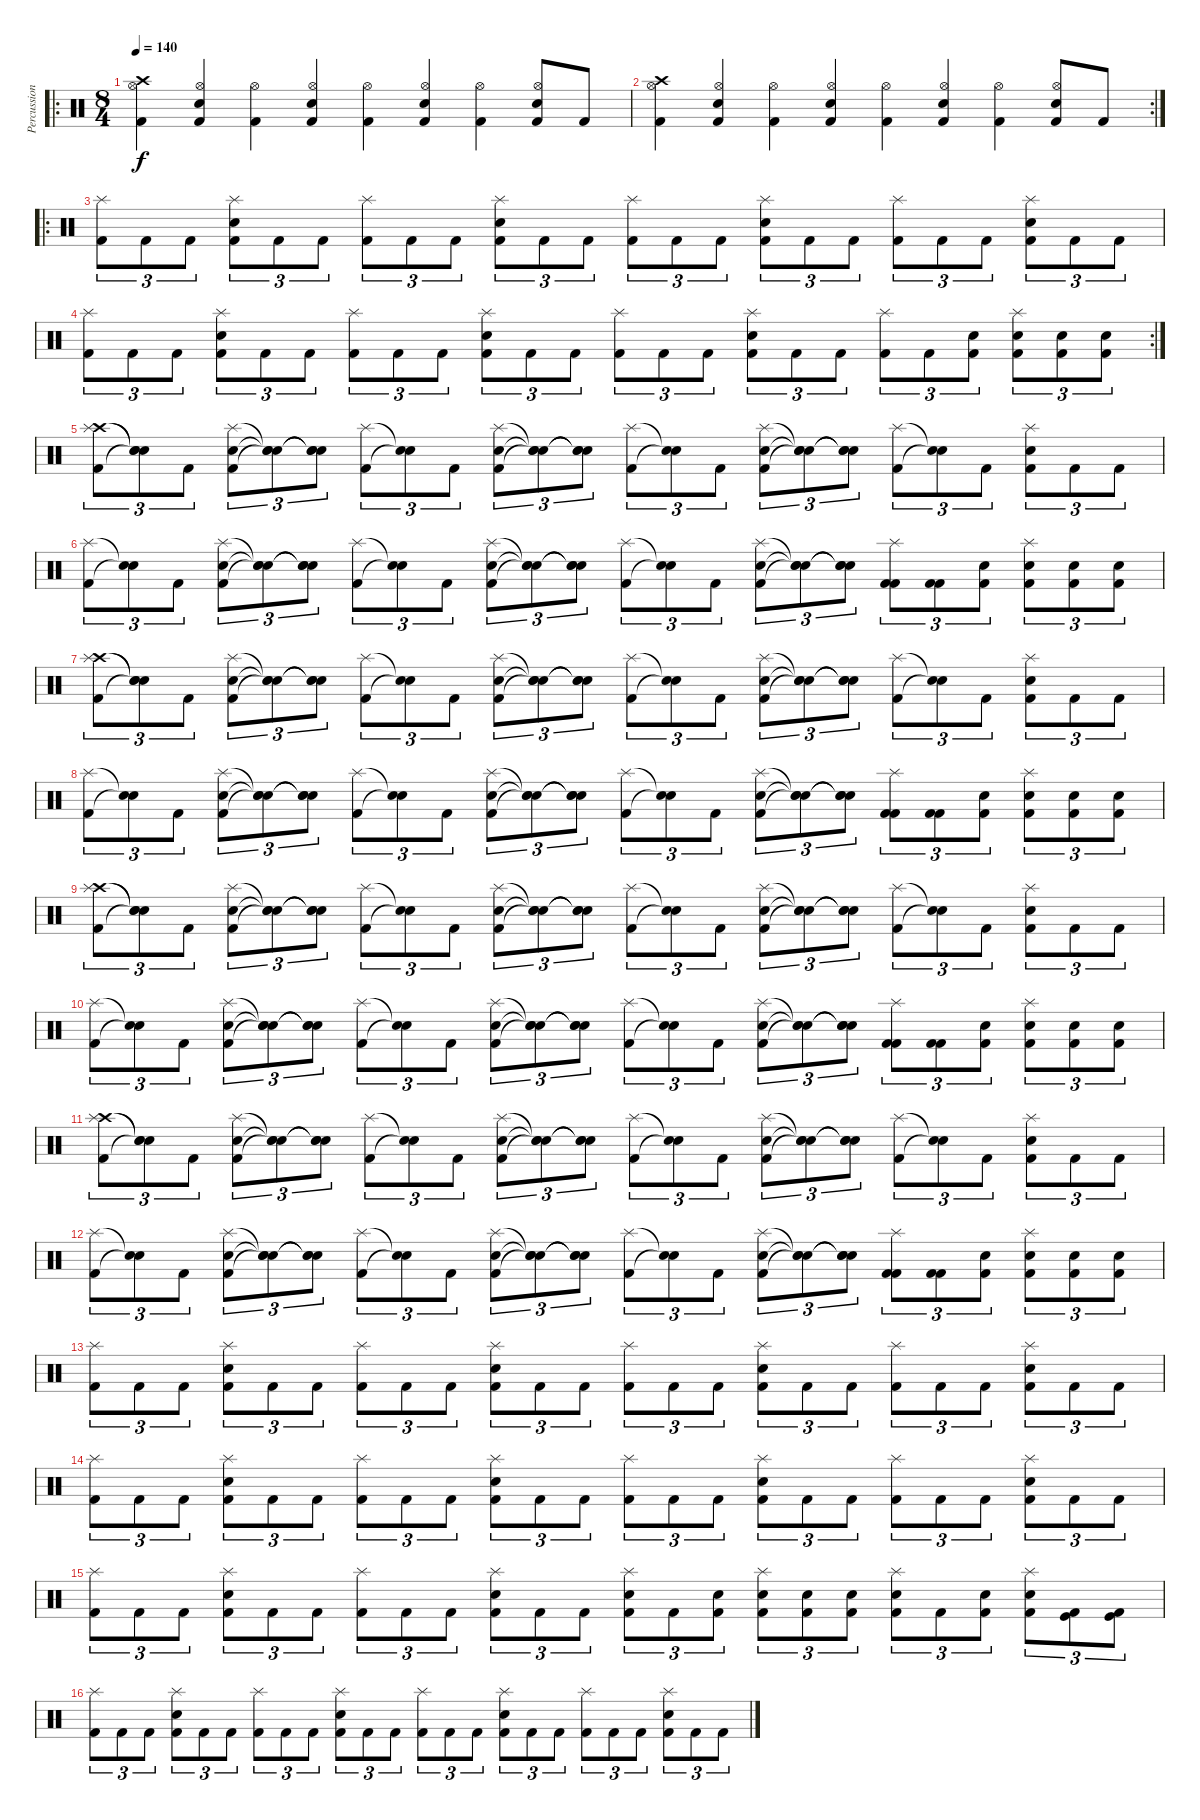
\track ("Percussion" "Percussion") {instrument percussion}
\staff {score}
\articulation defaults
\ro
\ts (8 4)
\tempo 140
\clef neutral
\ks c
("Crash high (hit)" "Kick (hit) 2" "Hi-Hat (open)").4{dy f} ("Snare (hit) 2" "Kick (hit) 2" "Hi-Hat (open)").4 ("Kick (hit) 2" "Hi-Hat (open)").4 ("Snare (hit) 2" "Kick (hit) 2" "Hi-Hat (open)").4 ("Kick (hit) 2" "Hi-Hat (open)").4 ("Snare (hit) 2" "Kick (hit) 2" "Hi-Hat (open)").4 ("Kick (hit) 2" "Hi-Hat (open)").4 ("Snare (hit) 2" "Kick (hit) 2" "Hi-Hat (open)").8 "Kick (hit) 2".8 |
\rc 2
("Crash high (hit)" "Kick (hit) 2" "Hi-Hat (open)").4 ("Snare (hit) 2" "Kick (hit) 2" "Hi-Hat (open)").4 ("Kick (hit) 2" "Hi-Hat (open)").4 ("Snare (hit) 2" "Kick (hit) 2" "Hi-Hat (open)").4 ("Kick (hit) 2" "Hi-Hat (open)").4 ("Snare (hit) 2" "Kick (hit) 2" "Hi-Hat (open)").4 ("Kick (hit) 2" "Hi-Hat (open)").4 ("Snare (hit) 2" "Kick (hit) 2" "Hi-Hat (open)").8 "Kick (hit) 2".8 |
\ro
("Splash (hit)" "Kick (hit) 2").8{tu (3 2)} "Kick (hit) 2".8{tu (3 2)} "Kick (hit) 2".8{tu (3 2)} ("Splash (hit)" "Snare (hit) 2" "Kick (hit) 2").8{tu (3 2)} "Kick (hit) 2".8{tu (3 2)} "Kick (hit) 2".8{tu (3 2)} ("Splash (hit)" "Kick (hit) 2").8{tu (3 2)} "Kick (hit) 2".8{tu (3 2)} "Kick (hit) 2".8{tu (3 2)} ("Splash (hit)" "Snare (hit) 2" "Kick (hit) 2").8{tu (3 2)} "Kick (hit) 2".8{tu (3 2)} "Kick (hit) 2".8{tu (3 2)} ("Splash (hit)" "Kick (hit) 2").8{tu (3 2)} "Kick (hit) 2".8{tu (3 2)} "Kick (hit) 2".8{tu (3 2)} ("Splash (hit)" "Snare (hit) 2" "Kick (hit) 2").8{tu (3 2)} "Kick (hit) 2".8{tu (3 2)} "Kick (hit) 2".8{tu (3 2)} ("Splash (hit)" "Kick (hit) 2").8{tu (3 2)} "Kick (hit) 2".8{tu (3 2)} "Kick (hit) 2".8{tu (3 2)} ("Splash (hit)" "Snare (hit) 2" "Kick (hit) 2").8{tu (3 2)} "Kick (hit) 2".8{tu (3 2)} "Kick (hit) 2".8{tu (3 2)} |
\rc 2
("Splash (hit)" "Kick (hit) 2").8{tu (3 2)} "Kick (hit) 2".8{tu (3 2)} "Kick (hit) 2".8{tu (3 2)} ("Splash (hit)" "Snare (hit) 2" "Kick (hit) 2").8{tu (3 2)} "Kick (hit) 2".8{tu (3 2)} "Kick (hit) 2".8{tu (3 2)} ("Splash (hit)" "Kick (hit) 2").8{tu (3 2)} "Kick (hit) 2".8{tu (3 2)} "Kick (hit) 2".8{tu (3 2)} ("Splash (hit)" "Snare (hit) 2" "Kick (hit) 2").8{tu (3 2)} "Kick (hit) 2".8{tu (3 2)} "Kick (hit) 2".8{tu (3 2)} ("Splash (hit)" "Kick (hit) 2").8{tu (3 2)} "Kick (hit) 2".8{tu (3 2)} "Kick (hit) 2".8{tu (3 2)} ("Splash (hit)" "Snare (hit) 2" "Kick (hit) 2").8{tu (3 2)} "Kick (hit) 2".8{tu (3 2)} "Kick (hit) 2".8{tu (3 2)} ("Splash (hit)" "Kick (hit) 2").8{tu (3 2)} "Kick (hit) 2".8{tu (3 2)} ("Snare (hit) 2" "Kick (hit) 2").8{tu (3 2)} ("Splash (hit)" "Snare (hit) 2" "Kick (hit) 2").8{tu (3 2)} ("Snare (hit) 2" "Kick (hit) 2").8{tu (3 2)} ("Snare (hit) 2" "Kick (hit) 2").8{tu (3 2)} |
("Crash high (hit)" "Splash (hit)" "Kick (hit) 2").8{tu (3 2)} ("Snare (hit)"{t} "Snare (hit)"{t} "Snare (hit)"{t}).8{tu (3 2)} "Kick (hit) 2".8{tu (3 2)} ("Splash (hit)" "Snare (hit) 2" "Kick (hit) 2").8{tu (3 2)} ("Snare (hit)"{t} "Snare (hit)"{t} "Snare (hit)"{t}).8{tu (3 2)} ("Snare (hit)"{t} "Snare (hit)"{t} "Snare (hit)"{t}).8{tu (3 2)} ("Splash (hit)" "Kick (hit) 2").8{tu (3 2)} ("Snare (hit)"{t} "Snare (hit)"{t}).8{tu (3 2)} "Kick (hit) 2".8{tu (3 2)} ("Splash (hit)" "Snare (hit) 2" "Kick (hit) 2").8{tu (3 2)} ("Snare (hit)"{t} "Snare (hit)"{t} "Snare (hit)"{t}).8{tu (3 2)} ("Snare (hit)"{t} "Snare (hit)"{t} "Snare (hit)"{t}).8{tu (3 2)} ("Splash (hit)" "Kick (hit) 2").8{tu (3 2)} ("Snare (hit)"{t} "Snare (hit)"{t}).8{tu (3 2)} "Kick (hit) 2".8{tu (3 2)} ("Splash (hit)" "Snare (hit) 2" "Kick (hit) 2").8{tu (3 2)} ("Snare (hit)"{t} "Snare (hit)"{t} "Snare (hit)"{t}).8{tu (3 2)} ("Snare (hit)"{t} "Snare (hit)"{t} "Snare (hit)"{t}).8{tu (3 2)} ("Splash (hit)" "Kick (hit) 2").8{tu (3 2)} ("Snare (hit)"{t} "Snare (hit)"{t}).8{tu (3 2)} "Kick (hit) 2".8{tu (3 2)} ("Splash (hit)" "Snare (hit) 2" "Kick (hit) 2").8{tu (3 2)} "Kick (hit) 2".8{tu (3 2)} "Kick (hit) 2".8{tu (3 2)} |
("Splash (hit)" "Kick (hit) 2").8{tu (3 2)} ("Snare (hit)"{t} "Snare (hit)"{t}).8{tu (3 2)} "Kick (hit) 2".8{tu (3 2)} ("Splash (hit)" "Snare (hit) 2" "Kick (hit) 2").8{tu (3 2)} ("Snare (hit)"{t} "Snare (hit)"{t} "Snare (hit)"{t}).8{tu (3 2)} ("Snare (hit)"{t} "Snare (hit)"{t} "Snare (hit)"{t}).8{tu (3 2)} ("Splash (hit)" "Kick (hit) 2").8{tu (3 2)} ("Snare (hit)"{t} "Snare (hit)"{t}).8{tu (3 2)} "Kick (hit) 2".8{tu (3 2)} ("Splash (hit)" "Snare (hit) 2" "Kick (hit) 2").8{tu (3 2)} ("Snare (hit)"{t} "Snare (hit)"{t} "Snare (hit)"{t}).8{tu (3 2)} ("Snare (hit)"{t} "Snare (hit)"{t} "Snare (hit)"{t}).8{tu (3 2)} ("Splash (hit)" "Kick (hit) 2").8{tu (3 2)} ("Snare (hit)"{t} "Snare (hit)"{t}).8{tu (3 2)} "Kick (hit) 2".8{tu (3 2)} ("Splash (hit)" "Snare (hit) 2" "Kick (hit) 2").8{tu (3 2)} ("Snare (hit)"{t} "Snare (hit)"{t} "Snare (hit)"{t}).8{tu (3 2)} ("Snare (hit)"{t} "Snare (hit)"{t} "Snare (hit)"{t}).8{tu (3 2)} ("Splash (hit)" "Kick (hit) 2" "Kick (hit) 2").8{tu (3 2)} ("Kick (hit) 2" "Kick (hit) 2").8{tu (3 2)} ("Snare (hit) 2" "Kick (hit) 2").8{tu (3 2)} ("Splash (hit)" "Snare (hit) 2" "Kick (hit) 2").8{tu (3 2)} ("Snare (hit) 2" "Kick (hit) 2").8{tu (3 2)} ("Snare (hit) 2" "Kick (hit) 2").8{tu (3 2)} |
("Crash high (hit)" "Splash (hit)" "Kick (hit) 2").8{tu (3 2)} ("Snare (hit)"{t} "Snare (hit)"{t} "Snare (hit)"{t}).8{tu (3 2)} "Kick (hit) 2".8{tu (3 2)} ("Splash (hit)" "Snare (hit) 2" "Kick (hit) 2").8{tu (3 2)} ("Snare (hit)"{t} "Snare (hit)"{t} "Snare (hit)"{t}).8{tu (3 2)} ("Snare (hit)"{t} "Snare (hit)"{t} "Snare (hit)"{t}).8{tu (3 2)} ("Splash (hit)" "Kick (hit) 2").8{tu (3 2)} ("Snare (hit)"{t} "Snare (hit)"{t}).8{tu (3 2)} "Kick (hit) 2".8{tu (3 2)} ("Splash (hit)" "Snare (hit) 2" "Kick (hit) 2").8{tu (3 2)} ("Snare (hit)"{t} "Snare (hit)"{t} "Snare (hit)"{t}).8{tu (3 2)} ("Snare (hit)"{t} "Snare (hit)"{t} "Snare (hit)"{t}).8{tu (3 2)} ("Splash (hit)" "Kick (hit) 2").8{tu (3 2)} ("Snare (hit)"{t} "Snare (hit)"{t}).8{tu (3 2)} "Kick (hit) 2".8{tu (3 2)} ("Splash (hit)" "Snare (hit) 2" "Kick (hit) 2").8{tu (3 2)} ("Snare (hit)"{t} "Snare (hit)"{t} "Snare (hit)"{t}).8{tu (3 2)} ("Snare (hit)"{t} "Snare (hit)"{t} "Snare (hit)"{t}).8{tu (3 2)} ("Splash (hit)" "Kick (hit) 2").8{tu (3 2)} ("Snare (hit)"{t} "Snare (hit)"{t}).8{tu (3 2)} "Kick (hit) 2".8{tu (3 2)} ("Splash (hit)" "Snare (hit) 2" "Kick (hit) 2").8{tu (3 2)} "Kick (hit) 2".8{tu (3 2)} "Kick (hit) 2".8{tu (3 2)} |
("Splash (hit)" "Kick (hit) 2").8{tu (3 2)} ("Snare (hit)"{t} "Snare (hit)"{t}).8{tu (3 2)} "Kick (hit) 2".8{tu (3 2)} ("Splash (hit)" "Snare (hit) 2" "Kick (hit) 2").8{tu (3 2)} ("Snare (hit)"{t} "Snare (hit)"{t} "Snare (hit)"{t}).8{tu (3 2)} ("Snare (hit)"{t} "Snare (hit)"{t} "Snare (hit)"{t}).8{tu (3 2)} ("Splash (hit)" "Kick (hit) 2").8{tu (3 2)} ("Snare (hit)"{t} "Snare (hit)"{t}).8{tu (3 2)} "Kick (hit) 2".8{tu (3 2)} ("Splash (hit)" "Snare (hit) 2" "Kick (hit) 2").8{tu (3 2)} ("Snare (hit)"{t} "Snare (hit)"{t} "Snare (hit)"{t}).8{tu (3 2)} ("Snare (hit)"{t} "Snare (hit)"{t} "Snare (hit)"{t}).8{tu (3 2)} ("Splash (hit)" "Kick (hit) 2").8{tu (3 2)} ("Snare (hit)"{t} "Snare (hit)"{t}).8{tu (3 2)} "Kick (hit) 2".8{tu (3 2)} ("Splash (hit)" "Snare (hit) 2" "Kick (hit) 2").8{tu (3 2)} ("Snare (hit)"{t} "Snare (hit)"{t} "Snare (hit)"{t}).8{tu (3 2)} ("Snare (hit)"{t} "Snare (hit)"{t} "Snare (hit)"{t}).8{tu (3 2)} ("Splash (hit)" "Kick (hit) 2" "Kick (hit) 2").8{tu (3 2)} ("Kick (hit) 2" "Kick (hit) 2").8{tu (3 2)} ("Snare (hit) 2" "Kick (hit) 2").8{tu (3 2)} ("Splash (hit)" "Snare (hit) 2" "Kick (hit) 2").8{tu (3 2)} ("Snare (hit) 2" "Kick (hit) 2").8{tu (3 2)} ("Snare (hit) 2" "Kick (hit) 2").8{tu (3 2)} |
("Crash high (hit)" "Splash (hit)" "Kick (hit) 2").8{tu (3 2)} ("Snare (hit)"{t} "Snare (hit)"{t} "Snare (hit)"{t}).8{tu (3 2)} "Kick (hit) 2".8{tu (3 2)} ("Splash (hit)" "Snare (hit) 2" "Kick (hit) 2").8{tu (3 2)} ("Snare (hit)"{t} "Snare (hit)"{t} "Snare (hit)"{t}).8{tu (3 2)} ("Snare (hit)"{t} "Snare (hit)"{t} "Snare (hit)"{t}).8{tu (3 2)} ("Splash (hit)" "Kick (hit) 2").8{tu (3 2)} ("Snare (hit)"{t} "Snare (hit)"{t}).8{tu (3 2)} "Kick (hit) 2".8{tu (3 2)} ("Splash (hit)" "Snare (hit) 2" "Kick (hit) 2").8{tu (3 2)} ("Snare (hit)"{t} "Snare (hit)"{t} "Snare (hit)"{t}).8{tu (3 2)} ("Snare (hit)"{t} "Snare (hit)"{t} "Snare (hit)"{t}).8{tu (3 2)} ("Splash (hit)" "Kick (hit) 2").8{tu (3 2)} ("Snare (hit)"{t} "Snare (hit)"{t}).8{tu (3 2)} "Kick (hit) 2".8{tu (3 2)} ("Splash (hit)" "Snare (hit) 2" "Kick (hit) 2").8{tu (3 2)} ("Snare (hit)"{t} "Snare (hit)"{t} "Snare (hit)"{t}).8{tu (3 2)} ("Snare (hit)"{t} "Snare (hit)"{t} "Snare (hit)"{t}).8{tu (3 2)} ("Splash (hit)" "Kick (hit) 2").8{tu (3 2)} ("Snare (hit)"{t} "Snare (hit)"{t}).8{tu (3 2)} "Kick (hit) 2".8{tu (3 2)} ("Splash (hit)" "Snare (hit) 2" "Kick (hit) 2").8{tu (3 2)} "Kick (hit) 2".8{tu (3 2)} "Kick (hit) 2".8{tu (3 2)} |
("Splash (hit)" "Kick (hit) 2").8{tu (3 2)} ("Snare (hit)"{t} "Snare (hit)"{t}).8{tu (3 2)} "Kick (hit) 2".8{tu (3 2)} ("Splash (hit)" "Snare (hit) 2" "Kick (hit) 2").8{tu (3 2)} ("Snare (hit)"{t} "Snare (hit)"{t} "Snare (hit)"{t}).8{tu (3 2)} ("Snare (hit)"{t} "Snare (hit)"{t} "Snare (hit)"{t}).8{tu (3 2)} ("Splash (hit)" "Kick (hit) 2").8{tu (3 2)} ("Snare (hit)"{t} "Snare (hit)"{t}).8{tu (3 2)} "Kick (hit) 2".8{tu (3 2)} ("Splash (hit)" "Snare (hit) 2" "Kick (hit) 2").8{tu (3 2)} ("Snare (hit)"{t} "Snare (hit)"{t} "Snare (hit)"{t}).8{tu (3 2)} ("Snare (hit)"{t} "Snare (hit)"{t} "Snare (hit)"{t}).8{tu (3 2)} ("Splash (hit)" "Kick (hit) 2").8{tu (3 2)} ("Snare (hit)"{t} "Snare (hit)"{t}).8{tu (3 2)} "Kick (hit) 2".8{tu (3 2)} ("Splash (hit)" "Snare (hit) 2" "Kick (hit) 2").8{tu (3 2)} ("Snare (hit)"{t} "Snare (hit)"{t} "Snare (hit)"{t}).8{tu (3 2)} ("Snare (hit)"{t} "Snare (hit)"{t} "Snare (hit)"{t}).8{tu (3 2)} ("Splash (hit)" "Kick (hit) 2" "Kick (hit) 2").8{tu (3 2)} ("Kick (hit) 2" "Kick (hit) 2").8{tu (3 2)} ("Snare (hit) 2" "Kick (hit) 2").8{tu (3 2)} ("Splash (hit)" "Snare (hit) 2" "Kick (hit) 2").8{tu (3 2)} ("Snare (hit) 2" "Kick (hit) 2").8{tu (3 2)} ("Snare (hit) 2" "Kick (hit) 2").8{tu (3 2)} |
("Crash high (hit)" "Splash (hit)" "Kick (hit) 2").8{tu (3 2)} ("Snare (hit)"{t} "Snare (hit)"{t} "Snare (hit)"{t}).8{tu (3 2)} "Kick (hit) 2".8{tu (3 2)} ("Splash (hit)" "Snare (hit) 2" "Kick (hit) 2").8{tu (3 2)} ("Snare (hit)"{t} "Snare (hit)"{t} "Snare (hit)"{t}).8{tu (3 2)} ("Snare (hit)"{t} "Snare (hit)"{t} "Snare (hit)"{t}).8{tu (3 2)} ("Splash (hit)" "Kick (hit) 2").8{tu (3 2)} ("Snare (hit)"{t} "Snare (hit)"{t}).8{tu (3 2)} "Kick (hit) 2".8{tu (3 2)} ("Splash (hit)" "Snare (hit) 2" "Kick (hit) 2").8{tu (3 2)} ("Snare (hit)"{t} "Snare (hit)"{t} "Snare (hit)"{t}).8{tu (3 2)} ("Snare (hit)"{t} "Snare (hit)"{t} "Snare (hit)"{t}).8{tu (3 2)} ("Splash (hit)" "Kick (hit) 2").8{tu (3 2)} ("Snare (hit)"{t} "Snare (hit)"{t}).8{tu (3 2)} "Kick (hit) 2".8{tu (3 2)} ("Splash (hit)" "Snare (hit) 2" "Kick (hit) 2").8{tu (3 2)} ("Snare (hit)"{t} "Snare (hit)"{t} "Snare (hit)"{t}).8{tu (3 2)} ("Snare (hit)"{t} "Snare (hit)"{t} "Snare (hit)"{t}).8{tu (3 2)} ("Splash (hit)" "Kick (hit) 2").8{tu (3 2)} ("Snare (hit)"{t} "Snare (hit)"{t}).8{tu (3 2)} "Kick (hit) 2".8{tu (3 2)} ("Splash (hit)" "Snare (hit) 2" "Kick (hit) 2").8{tu (3 2)} "Kick (hit) 2".8{tu (3 2)} "Kick (hit) 2".8{tu (3 2)} |
("Splash (hit)" "Kick (hit) 2").8{tu (3 2)} ("Snare (hit)"{t} "Snare (hit)"{t}).8{tu (3 2)} "Kick (hit) 2".8{tu (3 2)} ("Splash (hit)" "Snare (hit) 2" "Kick (hit) 2").8{tu (3 2)} ("Snare (hit)"{t} "Snare (hit)"{t} "Snare (hit)"{t}).8{tu (3 2)} ("Snare (hit)"{t} "Snare (hit)"{t} "Snare (hit)"{t}).8{tu (3 2)} ("Splash (hit)" "Kick (hit) 2").8{tu (3 2)} ("Snare (hit)"{t} "Snare (hit)"{t}).8{tu (3 2)} "Kick (hit) 2".8{tu (3 2)} ("Splash (hit)" "Snare (hit) 2" "Kick (hit) 2").8{tu (3 2)} ("Snare (hit)"{t} "Snare (hit)"{t} "Snare (hit)"{t}).8{tu (3 2)} ("Snare (hit)"{t} "Snare (hit)"{t} "Snare (hit)"{t}).8{tu (3 2)} ("Splash (hit)" "Kick (hit) 2").8{tu (3 2)} ("Snare (hit)"{t} "Snare (hit)"{t}).8{tu (3 2)} "Kick (hit) 2".8{tu (3 2)} ("Splash (hit)" "Snare (hit) 2" "Kick (hit) 2").8{tu (3 2)} ("Snare (hit)"{t} "Snare (hit)"{t} "Snare (hit)"{t}).8{tu (3 2)} ("Snare (hit)"{t} "Snare (hit)"{t} "Snare (hit)"{t}).8{tu (3 2)} ("Splash (hit)" "Kick (hit) 2" "Kick (hit) 2").8{tu (3 2)} ("Kick (hit) 2" "Kick (hit) 2").8{tu (3 2)} ("Snare (hit) 2" "Kick (hit) 2").8{tu (3 2)} ("Splash (hit)" "Snare (hit) 2" "Kick (hit) 2").8{tu (3 2)} ("Snare (hit) 2" "Kick (hit) 2").8{tu (3 2)} ("Snare (hit) 2" "Kick (hit) 2").8{tu (3 2)} |
("Splash (hit)" "Kick (hit) 2").8{tu (3 2)} "Kick (hit) 2".8{tu (3 2)} "Kick (hit) 2".8{tu (3 2)} ("Splash (hit)" "Snare (hit) 2" "Kick (hit) 2").8{tu (3 2)} "Kick (hit) 2".8{tu (3 2)} "Kick (hit) 2".8{tu (3 2)} ("Splash (hit)" "Kick (hit) 2").8{tu (3 2)} "Kick (hit) 2".8{tu (3 2)} "Kick (hit) 2".8{tu (3 2)} ("Splash (hit)" "Snare (hit) 2" "Kick (hit) 2").8{tu (3 2)} "Kick (hit) 2".8{tu (3 2)} "Kick (hit) 2".8{tu (3 2)} ("Splash (hit)" "Kick (hit) 2").8{tu (3 2)} "Kick (hit) 2".8{tu (3 2)} "Kick (hit) 2".8{tu (3 2)} ("Splash (hit)" "Snare (hit) 2" "Kick (hit) 2").8{tu (3 2)} "Kick (hit) 2".8{tu (3 2)} "Kick (hit) 2".8{tu (3 2)} ("Splash (hit)" "Kick (hit) 2").8{tu (3 2)} "Kick (hit) 2".8{tu (3 2)} "Kick (hit) 2".8{tu (3 2)} ("Splash (hit)" "Snare (hit) 2" "Kick (hit) 2").8{tu (3 2)} "Kick (hit) 2".8{tu (3 2)} "Kick (hit) 2".8{tu (3 2)} |
("Splash (hit)" "Kick (hit) 2").8{tu (3 2)} "Kick (hit) 2".8{tu (3 2)} "Kick (hit) 2".8{tu (3 2)} ("Splash (hit)" "Snare (hit) 2" "Kick (hit) 2").8{tu (3 2)} "Kick (hit) 2".8{tu (3 2)} "Kick (hit) 2".8{tu (3 2)} ("Splash (hit)" "Kick (hit) 2").8{tu (3 2)} "Kick (hit) 2".8{tu (3 2)} "Kick (hit) 2".8{tu (3 2)} ("Splash (hit)" "Snare (hit) 2" "Kick (hit) 2").8{tu (3 2)} "Kick (hit) 2".8{tu (3 2)} "Kick (hit) 2".8{tu (3 2)} ("Splash (hit)" "Kick (hit) 2").8{tu (3 2)} "Kick (hit) 2".8{tu (3 2)} "Kick (hit) 2".8{tu (3 2)} ("Splash (hit)" "Snare (hit) 2" "Kick (hit) 2").8{tu (3 2)} "Kick (hit) 2".8{tu (3 2)} "Kick (hit) 2".8{tu (3 2)} ("Splash (hit)" "Kick (hit) 2").8{tu (3 2)} "Kick (hit) 2".8{tu (3 2)} "Kick (hit) 2".8{tu (3 2)} ("Splash (hit)" "Snare (hit) 2" "Kick (hit) 2").8{tu (3 2)} "Kick (hit) 2".8{tu (3 2)} "Kick (hit) 2".8{tu (3 2)} |
("Splash (hit)" "Kick (hit) 2").8{tu (3 2)} "Kick (hit) 2".8{tu (3 2)} "Kick (hit) 2".8{tu (3 2)} ("Splash (hit)" "Snare (hit) 2" "Kick (hit) 2").8{tu (3 2)} "Kick (hit) 2".8{tu (3 2)} "Kick (hit) 2".8{tu (3 2)} ("Splash (hit)" "Kick (hit) 2").8{tu (3 2)} "Kick (hit) 2".8{tu (3 2)} "Kick (hit) 2".8{tu (3 2)} ("Splash (hit)" "Snare (hit) 2" "Kick (hit) 2").8{tu (3 2)} "Kick (hit) 2".8{tu (3 2)} "Kick (hit) 2".8{tu (3 2)} ("Splash (hit)" "Snare (hit) 2" "Kick (hit) 2").8{tu (3 2)} "Kick (hit) 2".8{tu (3 2)} ("Snare (hit) 2" "Kick (hit) 2").8{tu (3 2)} ("Splash (hit)" "Snare (hit) 2" "Kick (hit) 2").8{tu (3 2)} ("Snare (hit) 2" "Kick (hit) 2").8{tu (3 2)} ("Snare (hit) 2" "Kick (hit) 2").8{tu (3 2)} ("Splash (hit)" "Snare (hit) 2" "Kick (hit) 2").8{tu (3 2)} "Kick (hit) 2".8{tu (3 2)} ("Snare (hit) 2" "Kick (hit) 2").8{tu (3 2)} ("Splash (hit)" "Snare (hit) 2" "Kick (hit) 2").8{tu (3 2)} ("Kick (hit)" "Kick (hit) 2").8{tu (3 2)} ("Kick (hit)" "Kick (hit) 2").8{tu (3 2)} |
("Splash (hit)" "Kick (hit) 2").8{tu (3 2)} "Kick (hit) 2".8{tu (3 2)} "Kick (hit) 2".8{tu (3 2)} ("Splash (hit)" "Snare (hit) 2" "Kick (hit) 2").8{tu (3 2)} "Kick (hit) 2".8{tu (3 2)} "Kick (hit) 2".8{tu (3 2)} ("Splash (hit)" "Kick (hit) 2").8{tu (3 2)} "Kick (hit) 2".8{tu (3 2)} "Kick (hit) 2".8{tu (3 2)} ("Splash (hit)" "Snare (hit) 2" "Kick (hit) 2").8{tu (3 2)} "Kick (hit) 2".8{tu (3 2)} "Kick (hit) 2".8{tu (3 2)} ("Splash (hit)" "Kick (hit) 2").8{tu (3 2)} "Kick (hit) 2".8{tu (3 2)} "Kick (hit) 2".8{tu (3 2)} ("Splash (hit)" "Snare (hit) 2" "Kick (hit) 2").8{tu (3 2)} "Kick (hit) 2".8{tu (3 2)} "Kick (hit) 2".8{tu (3 2)} ("Splash (hit)" "Kick (hit) 2").8{tu (3 2)} "Kick (hit) 2".8{tu (3 2)} "Kick (hit) 2".8{tu (3 2)} ("Splash (hit)" "Snare (hit) 2" "Kick (hit) 2").8{tu (3 2)} "Kick (hit) 2".8{tu (3 2)} "Kick (hit) 2".8{tu (3 2)}
